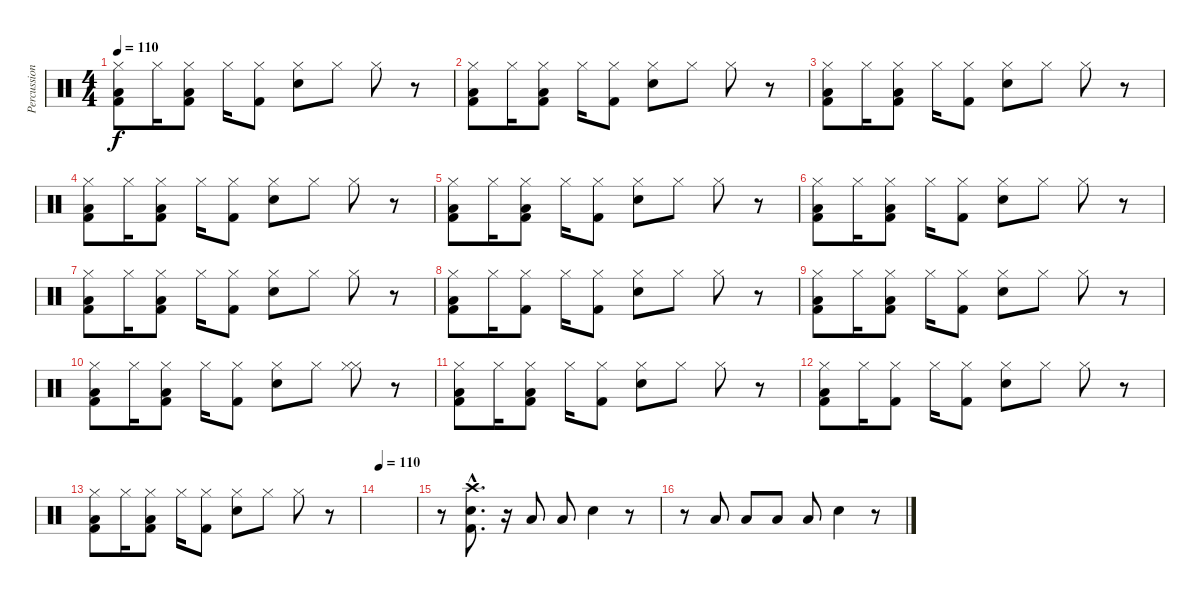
\track ("Percussioni" "Percussion") {instrument percussion}
\staff {score}
\articulation defaults
\ts (4 4)
\tempo 110
\clef neutral
\ks c
("Hi-Hat (closed)" "Low Tom (hit)" "Kick (hit) 2").8{dy f} "Hi-Hat (closed)".16 ("Hi-Hat (closed)" "Low Tom (hit)" "Kick (hit) 2").8 "Hi-Hat (closed)".16 ("Hi-Hat (closed)" "Kick (hit) 2").8 ("Hi-Hat (closed)" "Electric Snare (hit)").8 "Hi-Hat (closed)".8 "Hi-Hat (closed)".8 r.8 |
("Hi-Hat (closed)" "Low Tom (hit)" "Kick (hit) 2").8 "Hi-Hat (closed)".16 ("Hi-Hat (closed)" "Low Tom (hit)" "Kick (hit) 2").8 "Hi-Hat (closed)".16 ("Hi-Hat (closed)" "Kick (hit) 2").8 ("Hi-Hat (closed)" "Electric Snare (hit)").8 "Hi-Hat (closed)".8 "Hi-Hat (closed)".8 r.8 |
("Hi-Hat (closed)" "Low Tom (hit)" "Kick (hit) 2").8 "Hi-Hat (closed)".16 ("Hi-Hat (closed)" "Low Tom (hit)" "Kick (hit) 2").8 "Hi-Hat (closed)".16 ("Hi-Hat (closed)" "Kick (hit) 2").8 ("Hi-Hat (closed)" "Electric Snare (hit)").8 "Hi-Hat (closed)".8 "Hi-Hat (closed)".8 r.8 |
("Hi-Hat (closed)" "Low Tom (hit)" "Kick (hit) 2").8 "Hi-Hat (closed)".16 ("Hi-Hat (closed)" "Low Tom (hit)" "Kick (hit) 2").8 "Hi-Hat (closed)".16 ("Hi-Hat (closed)" "Kick (hit) 2").8 ("Hi-Hat (closed)" "Electric Snare (hit)").8 "Hi-Hat (closed)".8 "Hi-Hat (closed)".8 r.8 |
("Hi-Hat (closed)" "Low Tom (hit)" "Kick (hit) 2").8 "Hi-Hat (closed)".16 ("Hi-Hat (closed)" "Low Tom (hit)" "Kick (hit) 2").8 "Hi-Hat (closed)".16 ("Hi-Hat (closed)" "Kick (hit) 2").8 ("Hi-Hat (closed)" "Electric Snare (hit)").8 "Hi-Hat (closed)".8 "Hi-Hat (closed)".8 r.8 |
("Hi-Hat (closed)" "Low Tom (hit)" "Kick (hit) 2").8 "Hi-Hat (closed)".16 ("Hi-Hat (closed)" "Low Tom (hit)" "Kick (hit) 2").8 "Hi-Hat (closed)".16 ("Hi-Hat (closed)" "Kick (hit) 2").8 ("Hi-Hat (closed)" "Electric Snare (hit)").8 "Hi-Hat (closed)".8 "Hi-Hat (closed)".8 r.8 |
("Hi-Hat (closed)" "Low Tom (hit)" "Kick (hit) 2").8 "Hi-Hat (closed)".16 ("Hi-Hat (closed)" "Low Tom (hit)" "Kick (hit) 2").8 "Hi-Hat (closed)".16 ("Hi-Hat (closed)" "Kick (hit) 2").8 ("Hi-Hat (closed)" "Electric Snare (hit)").8 "Hi-Hat (closed)".8 "Hi-Hat (closed)".8 r.8 |
("Hi-Hat (closed)" "Low Tom (hit)" "Kick (hit) 2").8 "Hi-Hat (closed)".16 ("Hi-Hat (closed)" "Kick (hit) 2").8 "Hi-Hat (closed)".16 ("Hi-Hat (closed)" "Kick (hit) 2").8 ("Hi-Hat (closed)" "Electric Snare (hit)").8 "Hi-Hat (closed)".8 "Hi-Hat (closed)".8 r.8 |
("Hi-Hat (closed)" "Low Tom (hit)" "Kick (hit) 2").8 "Hi-Hat (closed)".16 ("Hi-Hat (closed)" "Low Tom (hit)" "Kick (hit) 2").8 "Hi-Hat (closed)".16 ("Hi-Hat (closed)" "Kick (hit) 2").8 ("Hi-Hat (closed)" "Electric Snare (hit)").8 "Hi-Hat (closed)".8 "Hi-Hat (closed)".8 r.8 |
("Hi-Hat (closed)" "Low Tom (hit)" "Kick (hit) 2").8 "Hi-Hat (closed)".16 ("Hi-Hat (closed)" "Low Tom (hit)" "Kick (hit) 2").8 "Hi-Hat (closed)".16 ("Hi-Hat (closed)" "Kick (hit) 2").8 ("Hi-Hat (closed)" "Electric Snare (hit)").8 "Hi-Hat (closed)".8 ("Hi-Hat (closed)" "Hi-Hat (closed)").8 r.8 |
("Hi-Hat (closed)" "Low Tom (hit)" "Kick (hit) 2").8 "Hi-Hat (closed)".16 ("Hi-Hat (closed)" "Low Tom (hit)" "Kick (hit) 2").8 "Hi-Hat (closed)".16 ("Hi-Hat (closed)" "Kick (hit) 2").8 ("Hi-Hat (closed)" "Electric Snare (hit)").8 "Hi-Hat (closed)".8 "Hi-Hat (closed)".8 r.8 |
("Hi-Hat (closed)" "Low Tom (hit)" "Kick (hit) 2").8 "Hi-Hat (closed)".16 ("Hi-Hat (closed)" "Kick (hit) 2").8 "Hi-Hat (closed)".16 ("Hi-Hat (closed)" "Kick (hit) 2").8 ("Hi-Hat (closed)" "Electric Snare (hit)").8 "Hi-Hat (closed)".8 "Hi-Hat (closed)".8 r.8 |
("Hi-Hat (closed)" "Low Tom (hit)" "Kick (hit) 2").8 "Hi-Hat (closed)".16 ("Hi-Hat (closed)" "Low Tom (hit)" "Kick (hit) 2").8 "Hi-Hat (closed)".16 ("Hi-Hat (closed)" "Kick (hit) 2").8 ("Hi-Hat (closed)" "Electric Snare (hit)").8 "Hi-Hat (closed)".8 "Hi-Hat (closed)".8 r.8 |
\tempo 110
|
r.8 ("Crash high (hit)"{hac} "Electric Snare (hit)"{hac} "Kick (hit) 2"{hac}).8{d} r.16 "Low Tom (hit)".8 "Low Tom (hit)".8 "Electric Snare (hit)".4 r.8 |
r.8 "Low Tom (hit)".8 "Low Tom (hit)".8 "Low Tom (hit)".8 "Low Tom (hit)".8 "Electric Snare (hit)".4 r.8
